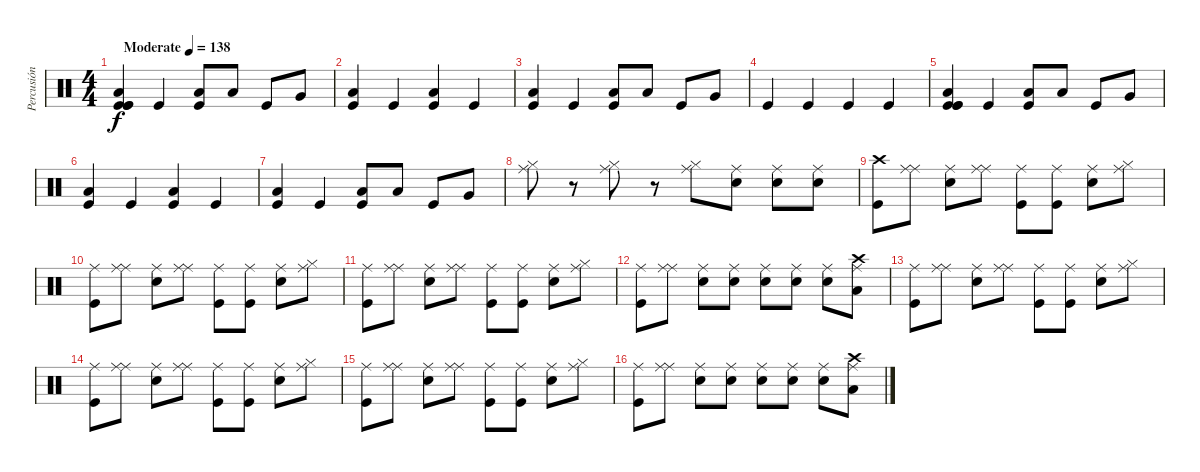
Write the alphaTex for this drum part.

\track ("Percusión" "Percusión") {instrument percussion}
\staff {score}
\articulation defaults
\ts (4 4)
\tempo (138 "Moderate")
\clef neutral
\ks c
("Kick (hit)" "Low Floor Tom (hit)" "Kick (hit)" "Kick (hit)").4{dy f} "Kick (hit)".4 ("Kick (hit)" "Low Floor Tom (hit)").8 "Low Floor Tom (hit)".8 "Kick (hit)".8 "Very Low Tom (hit)".8 |
("Kick (hit)" "Low Floor Tom (hit)").4 "Kick (hit)".4 ("Kick (hit)" "Low Floor Tom (hit)").4 "Kick (hit)".4 |
("Kick (hit)" "Low Floor Tom (hit)").4 "Kick (hit)".4 ("Kick (hit)" "Low Floor Tom (hit)").8 "Low Floor Tom (hit)".8 "Kick (hit)".8 "Very Low Tom (hit)".8 |
"Kick (hit)".4 "Kick (hit)".4 "Kick (hit)".4 "Kick (hit)".4 |
("Kick (hit)" "Low Floor Tom (hit)" "Kick (hit)" "Kick (hit)").4 "Kick (hit)".4 ("Kick (hit)" "Low Floor Tom (hit)").8 "Low Floor Tom (hit)".8 "Kick (hit)".8 "Very Low Tom (hit)".8 |
("Kick (hit)" "Low Floor Tom (hit)").4 "Kick (hit)".4 ("Kick (hit)" "Low Floor Tom (hit)").4 "Kick (hit)".4 |
("Kick (hit)" "Low Floor Tom (hit)").4 "Kick (hit)".4 ("Kick (hit)" "Low Floor Tom (hit)").8 "Low Floor Tom (hit)".8 "Kick (hit)".8 "Very Low Tom (hit)".8 |
("Ride (middle)" "Hi-Hat (closed)").8 r.8 ("Ride (middle)" "Hi-Hat (closed)").8 r.8 ("Ride (middle)" "Hi-Hat (closed)").8 ("Ride (middle)" "Snare (hit) 2").8 ("Ride (middle)" "Snare (hit) 2").8 ("Ride (middle)" "Snare (hit) 2").8 |
("Crash high (hit)" "Kick (hit)").8 ("Ride (middle)" "Ride (middle)").8 ("Ride (middle)" "Snare (hit) 2").8 ("Ride (middle)" "Ride (middle)").8 ("Ride (middle)" "Kick (hit)").8 ("Ride (middle)" "Kick (hit)").8 ("Ride (middle)" "Snare (hit) 2").8 ("Ride (middle)" "Hi-Hat (closed)").8 |
("Ride (middle)" "Kick (hit)").8 ("Ride (middle)" "Ride (middle)").8 ("Ride (middle)" "Snare (hit) 2").8 ("Ride (middle)" "Ride (middle)").8 ("Ride (middle)" "Kick (hit)").8 ("Ride (middle)" "Kick (hit)").8 ("Ride (middle)" "Snare (hit) 2").8 ("Ride (middle)" "Hi-Hat (closed)").8 |
("Ride (middle)" "Kick (hit)").8 ("Ride (middle)" "Ride (middle)").8 ("Ride (middle)" "Snare (hit) 2").8 ("Ride (middle)" "Ride (middle)").8 ("Ride (middle)" "Kick (hit)").8 ("Ride (middle)" "Kick (hit)").8 ("Ride (middle)" "Snare (hit) 2").8 ("Ride (middle)" "Hi-Hat (closed)").8 |
("Ride (middle)" "Kick (hit)").8 ("Ride (middle)" "Ride (middle)").8 ("Ride (middle)" "Snare (hit) 2").8 ("Ride (middle)" "Snare (hit) 2").8 ("Ride (middle)" "Snare (hit) 2").8 ("Ride (middle)" "Snare (hit) 2").8 ("Ride (middle)" "Snare (hit) 2").8 ("Ride (middle)" "Low Tom (hit)" "Crash high (hit)").8 |
("Ride (middle)" "Kick (hit)").8 ("Ride (middle)" "Ride (middle)").8 ("Ride (middle)" "Snare (hit) 2").8 ("Ride (middle)" "Ride (middle)").8 ("Ride (middle)" "Kick (hit)").8 ("Ride (middle)" "Kick (hit)").8 ("Ride (middle)" "Snare (hit) 2").8 ("Ride (middle)" "Hi-Hat (closed)").8 |
("Ride (middle)" "Kick (hit)").8 ("Ride (middle)" "Ride (middle)").8 ("Ride (middle)" "Snare (hit) 2").8 ("Ride (middle)" "Ride (middle)").8 ("Ride (middle)" "Kick (hit)").8 ("Ride (middle)" "Kick (hit)").8 ("Ride (middle)" "Snare (hit) 2").8 ("Ride (middle)" "Hi-Hat (closed)").8 |
("Ride (middle)" "Kick (hit)").8 ("Ride (middle)" "Ride (middle)").8 ("Ride (middle)" "Snare (hit) 2").8 ("Ride (middle)" "Ride (middle)").8 ("Ride (middle)" "Kick (hit)").8 ("Ride (middle)" "Kick (hit)").8 ("Ride (middle)" "Snare (hit) 2").8 ("Ride (middle)" "Hi-Hat (closed)").8 |
("Ride (middle)" "Kick (hit)").8 ("Ride (middle)" "Ride (middle)").8 ("Ride (middle)" "Snare (hit) 2").8 ("Ride (middle)" "Snare (hit) 2").8 ("Ride (middle)" "Snare (hit) 2").8 ("Ride (middle)" "Snare (hit) 2").8 ("Ride (middle)" "Snare (hit) 2").8 ("Ride (middle)" "Low Tom (hit)" "Crash high (hit)").8
